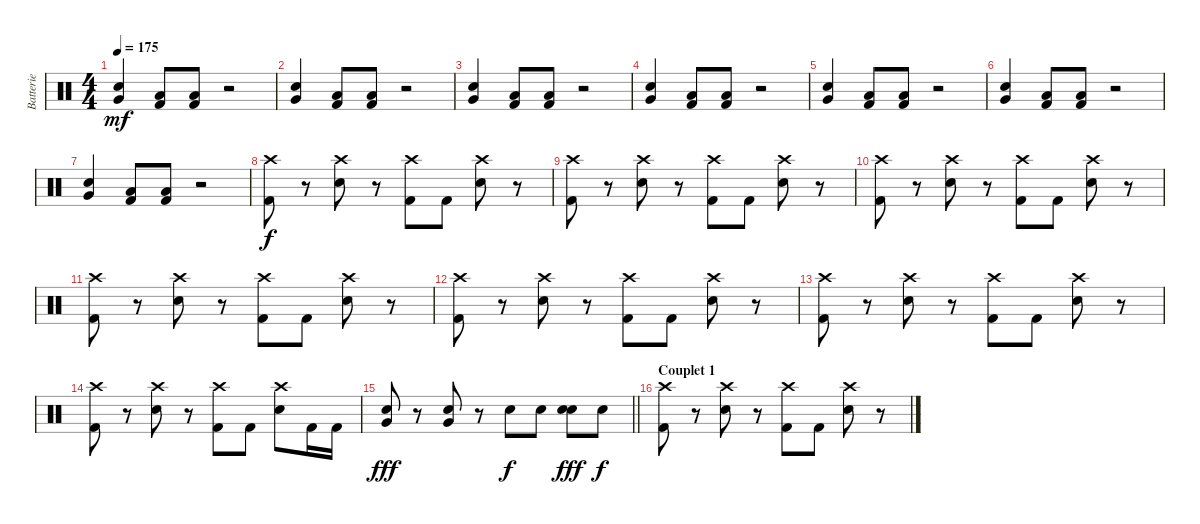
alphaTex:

\track ("Batterie" "Batterie") {instrument percussion}
\staff {score}
\articulation defaults
\ts (4 4)
\tempo 175
\clef neutral
\ks c
("Electric Snare (hit)" "Very Low Tom (hit)").4{dy mf} ("Kick (hit) 2" "Low Floor Tom (hit)").8 ("Kick (hit) 2" "Low Floor Tom (hit)").8 r.2 |
("Electric Snare (hit)" "Very Low Tom (hit)").4 ("Kick (hit) 2" "Low Floor Tom (hit)").8 ("Kick (hit) 2" "Low Floor Tom (hit)").8 r.2 |
("Electric Snare (hit)" "Very Low Tom (hit)").4 ("Kick (hit) 2" "Low Floor Tom (hit)").8 ("Kick (hit) 2" "Low Floor Tom (hit)").8 r.2 |
("Electric Snare (hit)" "Very Low Tom (hit)").4 ("Kick (hit) 2" "Low Floor Tom (hit)").8 ("Kick (hit) 2" "Low Floor Tom (hit)").8 r.2 |
("Electric Snare (hit)" "Very Low Tom (hit)").4 ("Kick (hit) 2" "Low Floor Tom (hit)").8 ("Kick (hit) 2" "Low Floor Tom (hit)").8 r.2 |
("Electric Snare (hit)" "Very Low Tom (hit)").4 ("Kick (hit) 2" "Low Floor Tom (hit)").8 ("Kick (hit) 2" "Low Floor Tom (hit)").8 r.2 |
("Electric Snare (hit)" "Very Low Tom (hit)").4 ("Kick (hit) 2" "Low Floor Tom (hit)").8 ("Kick (hit) 2" "Low Floor Tom (hit)").8 r.2 |
("Kick (hit) 2" "Crash high (hit)").8{dy f} r.8 ("Electric Snare (hit)" "Crash high (hit)").8 r.8 ("Kick (hit) 2" "Crash high (hit)").8 "Kick (hit) 2".8 ("Electric Snare (hit)" "Crash high (hit)").8 r.8 |
("Kick (hit) 2" "Crash high (hit)").8 r.8 ("Electric Snare (hit)" "Crash high (hit)").8 r.8 ("Kick (hit) 2" "Crash high (hit)").8 "Kick (hit) 2".8 ("Electric Snare (hit)" "Crash high (hit)").8 r.8 |
("Kick (hit) 2" "Crash high (hit)").8 r.8 ("Electric Snare (hit)" "Crash high (hit)").8 r.8 ("Kick (hit) 2" "Crash high (hit)").8 "Kick (hit) 2".8 ("Electric Snare (hit)" "Crash high (hit)").8 r.8 |
("Kick (hit) 2" "Crash high (hit)").8 r.8 ("Electric Snare (hit)" "Crash high (hit)").8 r.8 ("Kick (hit) 2" "Crash high (hit)").8 "Kick (hit) 2".8 ("Electric Snare (hit)" "Crash high (hit)").8 r.8 |
("Kick (hit) 2" "Crash high (hit)").8 r.8 ("Electric Snare (hit)" "Crash high (hit)").8 r.8 ("Kick (hit) 2" "Crash high (hit)").8 "Kick (hit) 2".8 ("Electric Snare (hit)" "Crash high (hit)").8 r.8 |
("Kick (hit) 2" "Crash high (hit)").8 r.8 ("Electric Snare (hit)" "Crash high (hit)").8 r.8 ("Kick (hit) 2" "Crash high (hit)").8 "Kick (hit) 2".8 ("Electric Snare (hit)" "Crash high (hit)").8 r.8 |
("Kick (hit) 2" "Crash high (hit)").8 r.8 ("Electric Snare (hit)" "Crash high (hit)").8 r.8 ("Kick (hit) 2" "Crash high (hit)").8 "Kick (hit) 2".8 ("Electric Snare (hit)" "Crash high (hit)").8 "Kick (hit) 2".16 "Kick (hit) 2".16 |
\barLineRight lightlight
("Electric Snare (hit)" "Very Low Tom (hit)").8{dy fff} r.8 ("Electric Snare (hit)" "Very Low Tom (hit)").8 r.8 "Electric Snare (hit)".8{dy f} "Electric Snare (hit)".8 ("Electric Snare (hit)" "Metronome (bell)").8{dy fff} "Electric Snare (hit)".8{dy f} |
\section ("" "Couplet 1")
("Kick (hit) 2" "Crash high (hit)").8 r.8 ("Electric Snare (hit)" "Crash high (hit)").8 r.8 ("Kick (hit) 2" "Crash high (hit)").8 "Kick (hit) 2".8 ("Electric Snare (hit)" "Crash high (hit)").8 r.8
